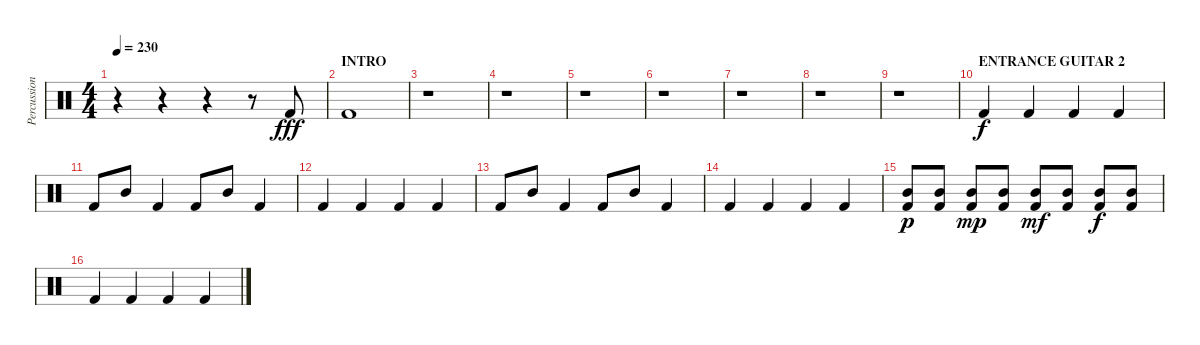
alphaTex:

\track ("Percussions" "Percussion") {instrument percussion}
\staff {score}
\articulation defaults
\ts (4 4)
\tempo 230
\tempo 204
\tempo 230
\clef neutral
\ks c
r.4{dy fff} r.4 r.4 r.8 "Kick (hit) 2".8 |
\section ("" "INTRO")
"Kick (hit) 2".1 |
r.1 |
r.1 |
r.1 |
r.1 |
r.1 |
r.1 |
r.1 |
\section ("" "ENTRANCE GUITAR 2")
"Kick (hit) 2".4{dy f} "Kick (hit) 2".4 "Kick (hit) 2".4 "Kick (hit) 2".4 |
"Kick (hit) 2".8 "Mid Tom (hit)".8 "Kick (hit) 2".4 "Kick (hit) 2".8 "Mid Tom (hit)".8 "Kick (hit) 2".4 |
"Kick (hit) 2".4 "Kick (hit) 2".4 "Kick (hit) 2".4 "Kick (hit) 2".4 |
"Kick (hit) 2".8 "Mid Tom (hit)".8 "Kick (hit) 2".4 "Kick (hit) 2".8 "Mid Tom (hit)".8 "Kick (hit) 2".4 |
"Kick (hit) 2".4 "Kick (hit) 2".4 "Kick (hit) 2".4 "Kick (hit) 2".4 |
("Mid Tom (hit)" "Kick (hit) 2").8{dy p} ("Mid Tom (hit)" "Kick (hit) 2").8 ("Mid Tom (hit)" "Kick (hit) 2").8{dy mp} ("Mid Tom (hit)" "Kick (hit) 2").8 ("Mid Tom (hit)" "Kick (hit) 2").8{dy mf} ("Mid Tom (hit)" "Kick (hit) 2").8 ("Mid Tom (hit)" "Kick (hit) 2").8{dy f} ("Mid Tom (hit)" "Kick (hit) 2").8 |
"Kick (hit) 2".4 "Kick (hit) 2".4 "Kick (hit) 2".4 "Kick (hit) 2".4
